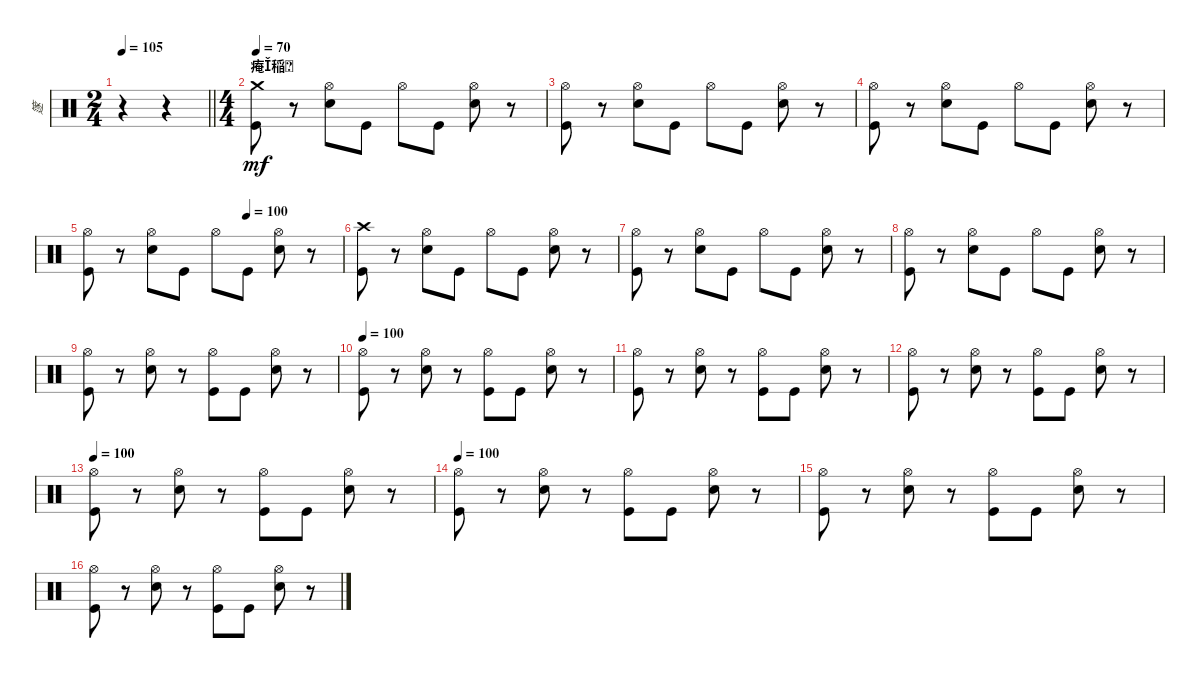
\track ("篴" "篴") {instrument percussion}
\staff {score}
\articulation defaults
\ts (2 4)
\tempo 105
\tempo 75
\tempo 105
\clef neutral
\barLineRight lightlight
\ks c
r.4{dy mf} r.4 |
\ts (4 4)
\section ("" "痷稲")
\tempo 70
("Crash medium (hit)" "Kick (hit)").8 r.8 ("Hi-Hat (open)" "Snare (hit) 2").8 "Kick (hit)".8 "Hi-Hat (open)".8 "Kick (hit)".8 ("Hi-Hat (open)" "Snare (hit) 2").8 r.8 |
("Hi-Hat (open)" "Kick (hit)").8 r.8 ("Hi-Hat (open)" "Snare (hit) 2").8 "Kick (hit)".8 "Hi-Hat (open)".8 "Kick (hit)".8 ("Hi-Hat (open)" "Snare (hit) 2").8 r.8 |
("Hi-Hat (open)" "Kick (hit)").8 r.8 ("Hi-Hat (open)" "Snare (hit) 2").8 "Kick (hit)".8 "Hi-Hat (open)".8 "Kick (hit)".8 ("Hi-Hat (open)" "Snare (hit) 2").8 r.8 |
\tempo (100 0.625)
("Hi-Hat (open)" "Kick (hit)").8 r.8 ("Hi-Hat (open)" "Snare (hit) 2").8 "Kick (hit)".8 "Hi-Hat (open)".8 "Kick (hit)".8 ("Hi-Hat (open)" "Snare (hit) 2").8 r.8 |
("Crash high (hit)" "Kick (hit)").8 r.8 ("Hi-Hat (open)" "Snare (hit) 2").8 "Kick (hit)".8 "Hi-Hat (open)".8 "Kick (hit)".8 ("Hi-Hat (open)" "Snare (hit) 2").8 r.8 |
("Hi-Hat (open)" "Kick (hit)").8 r.8 ("Hi-Hat (open)" "Snare (hit) 2").8 "Kick (hit)".8 "Hi-Hat (open)".8 "Kick (hit)".8 ("Hi-Hat (open)" "Snare (hit) 2").8 r.8 |
("Hi-Hat (open)" "Kick (hit)").8 r.8 ("Hi-Hat (open)" "Snare (hit) 2").8 "Kick (hit)".8 "Hi-Hat (open)".8 "Kick (hit)".8 ("Hi-Hat (open)" "Snare (hit) 2").8 r.8 |
("Hi-Hat (open)" "Kick (hit)").8 r.8 ("Hi-Hat (open)" "Snare (hit) 2").8 r.8 ("Hi-Hat (open)" "Kick (hit)").8 "Kick (hit)".8 ("Hi-Hat (open)" "Snare (hit) 2").8 r.8 |
\tempo 100
("Hi-Hat (open)" "Kick (hit)").8 r.8 ("Hi-Hat (open)" "Snare (hit) 2").8 r.8 ("Hi-Hat (open)" "Kick (hit)").8 "Kick (hit)".8 ("Hi-Hat (open)" "Snare (hit) 2").8 r.8 |
("Hi-Hat (open)" "Kick (hit)").8 r.8 ("Hi-Hat (open)" "Snare (hit) 2").8 r.8 ("Hi-Hat (open)" "Kick (hit)").8 "Kick (hit)".8 ("Hi-Hat (open)" "Snare (hit) 2").8 r.8 |
("Hi-Hat (open)" "Kick (hit)").8 r.8 ("Hi-Hat (open)" "Snare (hit) 2").8 r.8 ("Hi-Hat (open)" "Kick (hit)").8 "Kick (hit)".8 ("Hi-Hat (open)" "Snare (hit) 2").8 r.8 |
\tempo 100
("Hi-Hat (open)" "Kick (hit)").8 r.8 ("Hi-Hat (open)" "Snare (hit) 2").8 r.8 ("Hi-Hat (open)" "Kick (hit)").8 "Kick (hit)".8 ("Hi-Hat (open)" "Snare (hit) 2").8 r.8 |
\tempo 100
("Hi-Hat (open)" "Kick (hit)").8 r.8 ("Hi-Hat (open)" "Snare (hit) 2").8 r.8 ("Hi-Hat (open)" "Kick (hit)").8 "Kick (hit)".8 ("Hi-Hat (open)" "Snare (hit) 2").8 r.8 |
("Hi-Hat (open)" "Kick (hit)").8 r.8 ("Hi-Hat (open)" "Snare (hit) 2").8 r.8 ("Hi-Hat (open)" "Kick (hit)").8 "Kick (hit)".8 ("Hi-Hat (open)" "Snare (hit) 2").8 r.8 |
("Hi-Hat (open)" "Kick (hit)").8 r.8 ("Hi-Hat (open)" "Snare (hit) 2").8 r.8 ("Hi-Hat (open)" "Kick (hit)").8 "Kick (hit)".8 ("Hi-Hat (open)" "Snare (hit) 2").8 r.8
